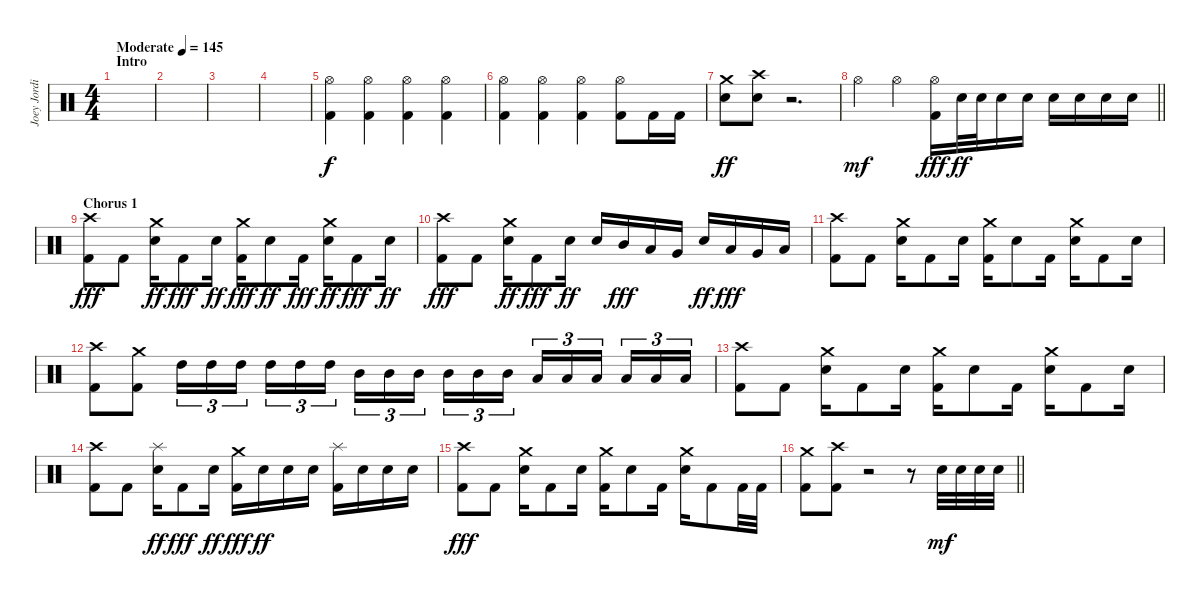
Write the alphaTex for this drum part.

\track ("Joey Jordison" "Joey Jordi") {instrument percussion}
\staff {score}
\articulation defaults
\ts (4 4)
\section ("" "Intro")
\tempo (145 "Moderate")
\clef neutral
\ks c
|
|
|
|
("Hi-Hat (open)" "Kick (hit) 2").4 ("Hi-Hat (open)" "Kick (hit) 2").4 ("Hi-Hat (open)" "Kick (hit) 2").4 ("Hi-Hat (open)" "Kick (hit) 2").4 |
("Hi-Hat (open)" "Kick (hit) 2").4 ("Hi-Hat (open)" "Kick (hit) 2").4 ("Hi-Hat (open)" "Kick (hit) 2").4 ("Hi-Hat (open)" "Kick (hit) 2").8 "Kick (hit) 2".16 "Kick (hit) 2".16 |
("Crash medium (hit)" "Electric Snare (hit)").8{dy ff} ("Crash high (hit)" "Electric Snare (hit)").8 r.2{d} |
\barLineRight lightlight "Hi-Hat (open)".4{dy mf} "Hi-Hat (open)".4
("Hi-Hat (open)" "Kick (hit) 2").16{dy fff} "Electric Snare (hit)".32{dy ff} "Electric Snare (hit)".32 "Electric Snare (hit)".16 "Electric Snare (hit)".16 "Electric Snare (hit)".16 "Electric Snare (hit)".16 "Electric Snare (hit)".16 "Electric Snare (hit)".16 |
\section ("" "Chorus 1")
("Crash high (hit)" "Kick (hit) 2").8{dy fff} "Kick (hit) 2".8 ("Crash medium (hit)" "Electric Snare (hit)").16{dy ff} "Kick (hit) 2".8{dy fff} "Electric Snare (hit)".16{dy ff} ("Crash medium (hit)" "Kick (hit) 2").16{dy fff} "Electric Snare (hit)".8{dy ff} "Kick (hit) 2".16{dy fff} ("Crash medium (hit)" "Electric Snare (hit)").16{dy ff} "Kick (hit) 2".8{dy fff} "Electric Snare (hit)".16{dy ff} |
("Crash high (hit)" "Kick (hit) 2").8{dy fff} "Kick (hit) 2".8 ("Crash medium (hit)" "Electric Snare (hit)").16{dy ff} "Kick (hit) 2".8{dy fff} "Electric Snare (hit)".16{dy ff} "Electric Snare (hit)".16 "Mid Tom (hit)".16{dy fff} "Low Tom (hit)".16 "Very Low Tom (hit)".16 "Electric Snare (hit)".16{dy ff} "Low Tom (hit)".16{dy fff} "Very Low Tom (hit)".16 "Low Floor Tom (hit)".16 |
("Crash high (hit)" "Kick (hit) 2").8 "Kick (hit) 2".8 ("Crash medium (hit)" "Electric Snare (hit)").16 "Kick (hit) 2".8 "Electric Snare (hit)".16 ("Crash medium (hit)" "Kick (hit) 2").16 "Electric Snare (hit)".8 "Kick (hit) 2".16 ("Crash medium (hit)" "Electric Snare (hit)").16 "Kick (hit) 2".8 "Electric Snare (hit)".16 |
("Crash high (hit)" "Kick (hit) 2").8 ("Crash medium (hit)" "Kick (hit) 2").8 "High Tom (hit)".16{tu (3 2)} "High Tom (hit)".16{tu (3 2)} "High Tom (hit)".16{tu (3 2) beam splitsecondary} "High Tom (hit)".16{tu (3 2)} "High Tom (hit)".16{tu (3 2)} "High Tom (hit)".16{tu (3 2)} "Mid Tom (hit)".16{tu (3 2)} "Mid Tom (hit)".16{tu (3 2)} "Mid Tom (hit)".16{tu (3 2) beam splitsecondary} "Mid Tom (hit)".16{tu (3 2)} "Mid Tom (hit)".16{tu (3 2)} "Mid Tom (hit)".16{tu (3 2)} "Low Tom (hit)".16{tu (3 2)} "Low Tom (hit)".16{tu (3 2)} "Low Tom (hit)".16{tu (3 2) beam splitsecondary} "Low Tom (hit)".16{tu (3 2)} "Low Tom (hit)".16{tu (3 2)} "Low Tom (hit)".16{tu (3 2)} |
("Crash high (hit)" "Kick (hit) 2").8 "Kick (hit) 2".8 ("Crash medium (hit)" "Electric Snare (hit)").16 "Kick (hit) 2".8 "Electric Snare (hit)".16 ("Crash medium (hit)" "Kick (hit) 2").16 "Electric Snare (hit)".8 "Kick (hit) 2".16 ("Crash medium (hit)" "Electric Snare (hit)").16 "Kick (hit) 2".8 "Electric Snare (hit)".16 |
("Crash high (hit)" "Kick (hit) 2").8 "Kick (hit) 2".8 ("Splash (hit)" "Electric Snare (hit)").16{dy ff} "Kick (hit) 2".8{dy fff} "Electric Snare (hit)".16{dy ff} ("Crash medium (hit)" "Kick (hit) 2").16{dy fff} "Electric Snare (hit)".16{dy ff} "Electric Snare (hit)".16 "Electric Snare (hit)".16 ("Splash (hit)" "Kick (hit) 2").16 "Electric Snare (hit)".16 "Electric Snare (hit)".16 "Electric Snare (hit)".16 |
("Crash high (hit)" "Kick (hit) 2").8{dy fff} "Kick (hit) 2".8 ("Crash medium (hit)" "Electric Snare (hit)").16 "Kick (hit) 2".8 "Electric Snare (hit)".16 ("Crash medium (hit)" "Kick (hit) 2").16 "Electric Snare (hit)".8 "Kick (hit) 2".16 ("Crash medium (hit)" "Electric Snare (hit)").16 "Kick (hit) 2".8 "Kick (hit) 2".32 "Kick (hit) 2".32 |
\barLineRight lightlight
("Crash medium (hit)" "Kick (hit) 2").8 ("Crash high (hit)" "Kick (hit) 2").8 r.2 r.8 "Electric Snare (hit)".32{dy mf} "Electric Snare (hit)".32 "Electric Snare (hit)".32 "Electric Snare (hit)".32
